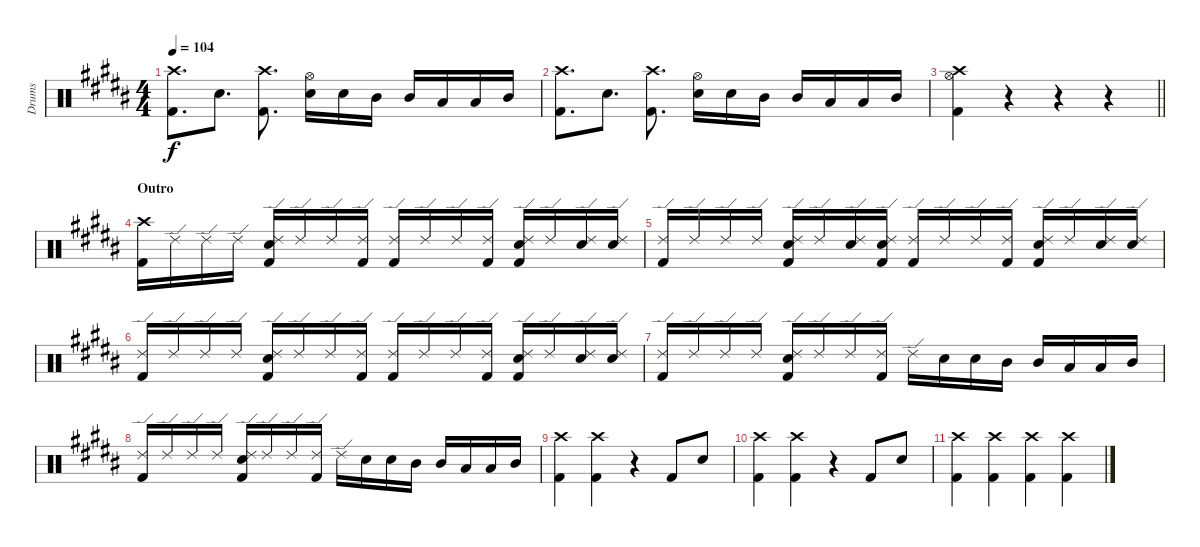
\track ("Drums" "Drums") {instrument percussion}
\staff {score}
\articulation defaults
\ts (4 4)
\tempo 104
\clef neutral
\ks b
("Kick (hit) 2" "Crash high (hit)").8{d dy f} "Electric Snare (hit)".8{d} ("Kick (hit) 2" "Crash high (hit)").8{d} ("Electric Snare (hit)" "Hi-Hat (open)").16 "Electric Snare (hit)".16 "Mid Tom (hit)".16 "Mid Tom (hit)".16 "Low Floor Tom (hit)".16 "Low Floor Tom (hit)".16 "Mid Tom (hit)".16 |
("Kick (hit) 2" "Crash high (hit)").8{d} "Electric Snare (hit)".8{d} ("Kick (hit) 2" "Crash high (hit)").8{d} ("Electric Snare (hit)" "Hi-Hat (open)").16 "Electric Snare (hit)".16 "Mid Tom (hit)".16 "Mid Tom (hit)".16 "Low Floor Tom (hit)".16 "Low Floor Tom (hit)".16 "Mid Tom (hit)".16 |
\barLineRight lightlight
("Kick (hit) 2" "Hi-Hat (open)" "Crash high (hit)").4 r.4 r.4 r.4 |
\section ("" "Outro")
("Kick (hit) 2" "Crash high (hit)").16 "Ride (edge) 2".16 "Ride (edge) 2".16 "Ride (edge) 2".16 ("Electric Snare (hit)" "Kick (hit) 2" "Ride (edge) 2").16 "Ride (edge) 2".16 "Ride (edge) 2".16 ("Kick (hit) 2" "Ride (edge) 2").16 ("Kick (hit) 2" "Ride (edge) 2").16 "Ride (edge) 2".16 "Ride (edge) 2".16 ("Kick (hit) 2" "Ride (edge) 2").16 ("Electric Snare (hit)" "Kick (hit) 2" "Ride (edge) 2").16 "Ride (edge) 2".16 ("Electric Snare (hit)" "Ride (edge) 2").16 ("Electric Snare (hit)" "Ride (edge) 2").16 |
("Kick (hit) 2" "Ride (edge) 2").16 "Ride (edge) 2".16 "Ride (edge) 2".16 "Ride (edge) 2".16 ("Electric Snare (hit)" "Kick (hit) 2" "Ride (edge) 2").16 "Ride (edge) 2".16 ("Electric Snare (hit)" "Ride (edge) 2").16 ("Electric Snare (hit)" "Kick (hit) 2" "Ride (edge) 2").16 ("Kick (hit) 2" "Ride (edge) 2").16 "Ride (edge) 2".16 "Ride (edge) 2".16 ("Kick (hit) 2" "Ride (edge) 2").16 ("Electric Snare (hit)" "Kick (hit) 2" "Ride (edge) 2").16 "Ride (edge) 2".16 ("Electric Snare (hit)" "Ride (edge) 2").16 ("Electric Snare (hit)" "Ride (edge) 2").16 |
("Kick (hit) 2" "Ride (edge) 2").16 "Ride (edge) 2".16 "Ride (edge) 2".16 "Ride (edge) 2".16 ("Electric Snare (hit)" "Kick (hit) 2" "Ride (edge) 2").16 "Ride (edge) 2".16 "Ride (edge) 2".16 ("Kick (hit) 2" "Ride (edge) 2").16 ("Kick (hit) 2" "Ride (edge) 2").16 "Ride (edge) 2".16 "Ride (edge) 2".16 ("Kick (hit) 2" "Ride (edge) 2").16 ("Electric Snare (hit)" "Kick (hit) 2" "Ride (edge) 2").16 "Ride (edge) 2".16 ("Electric Snare (hit)" "Ride (edge) 2").16 ("Electric Snare (hit)" "Ride (edge) 2").16 |
("Kick (hit) 2" "Ride (edge) 2").16 "Ride (edge) 2".16 "Ride (edge) 2".16 "Ride (edge) 2".16 ("Electric Snare (hit)" "Kick (hit) 2" "Ride (edge) 2").16 "Ride (edge) 2".16 "Ride (edge) 2".16 ("Kick (hit) 2" "Ride (edge) 2").16 "Ride (edge) 2".16 "Electric Snare (hit)".16 "Electric Snare (hit)".16 "Mid Tom (hit)".16 "Mid Tom (hit)".16 "Low Floor Tom (hit)".16 "Low Floor Tom (hit)".16 "Mid Tom (hit)".16 |
("Kick (hit) 2" "Ride (edge) 2").16 "Ride (edge) 2".16 "Ride (edge) 2".16 "Ride (edge) 2".16 ("Electric Snare (hit)" "Kick (hit) 2" "Ride (edge) 2").16 "Ride (edge) 2".16 "Ride (edge) 2".16 ("Kick (hit) 2" "Ride (edge) 2").16 "Ride (edge) 2".16 "Electric Snare (hit)".16 "Electric Snare (hit)".16 "Mid Tom (hit)".16 "Mid Tom (hit)".16 "Low Floor Tom (hit)".16 "Low Floor Tom (hit)".16 "Mid Tom (hit)".16 |
("Kick (hit) 2" "Crash high (hit)").4 ("Kick (hit) 2" "Crash high (hit)").4 r.4 "Kick (hit) 2".8 "Electric Snare (hit)".8 |
("Kick (hit) 2" "Crash high (hit)").4 ("Kick (hit) 2" "Crash high (hit)").4 r.4 "Kick (hit) 2".8 "Electric Snare (hit)".8 |
("Kick (hit) 2" "Crash high (hit)").4 ("Kick (hit) 2" "Crash high (hit)").4 ("Kick (hit) 2" "Crash high (hit)").4 ("Kick (hit) 2" "Crash high (hit)").4
